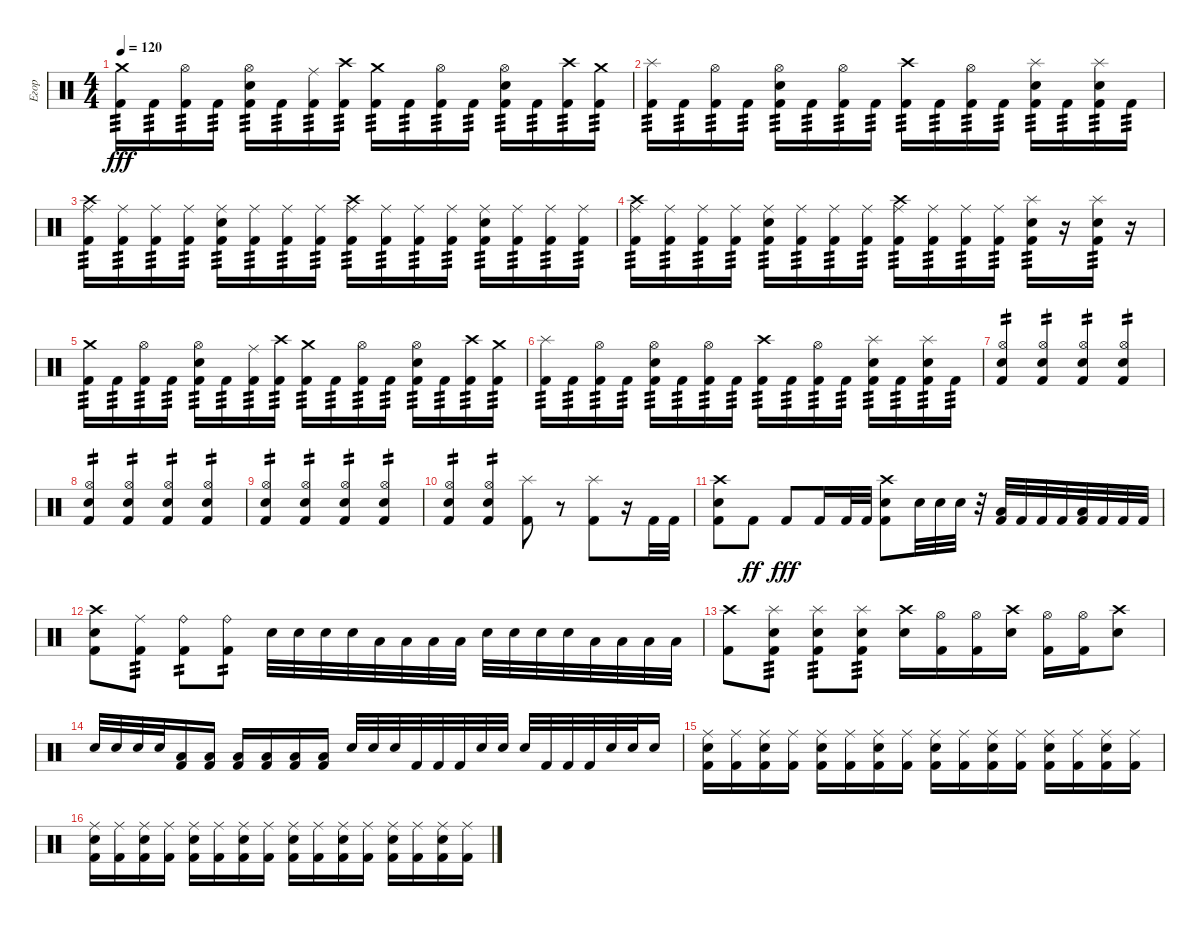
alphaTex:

\track ("Егор" "Егор") {instrument percussion}
\staff {score}
\articulation defaults
\ts (4 4)
\tempo 120
\clef neutral
\ks c
("Crash medium (hit)" "Kick (hit) 2").16{tp 3 dy fff} "Kick (hit) 2".16{tp 3} ("Hi-Hat (open)" "Kick (hit) 2").16{tp 3} "Kick (hit) 2".16{tp 3} ("Hi-Hat (open)" "Snare (hit) 2" "Kick (hit) 2").16{tp 3} "Kick (hit) 2".16{tp 3} ("Ride (middle)" "Kick (hit) 2").16{tp 3} ("Crash high (hit)" "Kick (hit) 2").16{tp 3} ("Crash medium (hit)" "Kick (hit) 2").16{tp 3} "Kick (hit) 2".16{tp 3} ("Hi-Hat (open)" "Kick (hit) 2").16{tp 3} "Kick (hit) 2".16{tp 3} ("Hi-Hat (open)" "Snare (hit) 2" "Kick (hit) 2").16{tp 3} "Kick (hit) 2".16{tp 3} ("Crash high (hit)" "Kick (hit) 2").16{tp 3} ("Crash medium (hit)" "Kick (hit) 2").16{tp 3} |
("Splash (hit)" "Kick (hit) 2").16{tp 3} "Kick (hit) 2".16{tp 3} ("Hi-Hat (open)" "Kick (hit) 2").16{tp 3} "Kick (hit) 2".16{tp 3} ("Hi-Hat (open)" "Snare (hit) 2" "Kick (hit) 2").16{tp 3} "Kick (hit) 2".16{tp 3} ("Hi-Hat (open)" "Kick (hit) 2").16{tp 3} "Kick (hit) 2".16{tp 3} ("Crash high (hit)" "Kick (hit) 2").16{tp 3} "Kick (hit) 2".16{tp 3} ("Hi-Hat (open)" "Kick (hit) 2").16{tp 3} "Kick (hit) 2".16{tp 3} ("Splash (hit)" "Snare (hit) 2" "Kick (hit) 2").16{tp 3} "Kick (hit) 2".16{tp 3} ("Splash (hit)" "Snare (hit) 2" "Kick (hit) 2").16{tp 3} "Kick (hit) 2".16{tp 3} |
("Ride (middle)" "Crash high (hit)" "Kick (hit) 2").16{tp 3} ("Ride (middle)" "Kick (hit) 2").16{tp 3} ("Ride (middle)" "Kick (hit) 2").16{tp 3} ("Ride (middle)" "Kick (hit) 2").16{tp 3} ("Ride (middle)" "Snare (hit) 2" "Kick (hit) 2").16{tp 3} ("Ride (middle)" "Kick (hit) 2").16{tp 3} ("Ride (middle)" "Kick (hit) 2").16{tp 3} ("Ride (middle)" "Kick (hit) 2").16{tp 3} ("Ride (middle)" "Crash high (hit)" "Kick (hit) 2").16{tp 3} ("Ride (middle)" "Kick (hit) 2").16{tp 3} ("Ride (middle)" "Kick (hit) 2").16{tp 3} ("Ride (middle)" "Kick (hit) 2").16{tp 3} ("Ride (middle)" "Snare (hit) 2" "Kick (hit) 2").16{tp 3} ("Ride (middle)" "Kick (hit) 2").16{tp 3} ("Ride (middle)" "Kick (hit) 2").16{tp 3} ("Ride (middle)" "Kick (hit) 2").16{tp 3} |
("Ride (middle)" "Crash high (hit)" "Kick (hit) 2").16{tp 3} ("Ride (middle)" "Kick (hit) 2").16{tp 3} ("Ride (middle)" "Kick (hit) 2").16{tp 3} ("Ride (middle)" "Kick (hit) 2").16{tp 3} ("Ride (middle)" "Snare (hit) 2" "Kick (hit) 2").16{tp 3} ("Ride (middle)" "Kick (hit) 2").16{tp 3} ("Ride (middle)" "Kick (hit) 2").16{tp 3} ("Ride (middle)" "Kick (hit) 2").16{tp 3} ("Ride (middle)" "Crash high (hit)" "Kick (hit) 2").16{tp 3} ("Ride (middle)" "Kick (hit) 2").16{tp 3} ("Ride (middle)" "Kick (hit) 2").16{tp 3} ("Ride (middle)" "Kick (hit) 2").16{tp 3} ("Splash (hit)" "Snare (hit) 2" "Kick (hit) 2").16{tp 3} r.16 ("Splash (hit)" "Snare (hit) 2" "Kick (hit) 2").16{tp 3} r.16 |
("Crash medium (hit)" "Kick (hit) 2").16{tp 3} "Kick (hit) 2".16{tp 3} ("Hi-Hat (open)" "Kick (hit) 2").16{tp 3} "Kick (hit) 2".16{tp 3} ("Hi-Hat (open)" "Snare (hit) 2" "Kick (hit) 2").16{tp 3} "Kick (hit) 2".16{tp 3} ("Ride (middle)" "Kick (hit) 2").16{tp 3} ("Crash high (hit)" "Kick (hit) 2").16{tp 3} ("Crash medium (hit)" "Kick (hit) 2").16{tp 3} "Kick (hit) 2".16{tp 3} ("Hi-Hat (open)" "Kick (hit) 2").16{tp 3} "Kick (hit) 2".16{tp 3} ("Hi-Hat (open)" "Snare (hit) 2" "Kick (hit) 2").16{tp 3} "Kick (hit) 2".16{tp 3} ("Crash high (hit)" "Kick (hit) 2").16{tp 3} ("Crash medium (hit)" "Kick (hit) 2").16{tp 3} |
("Splash (hit)" "Kick (hit) 2").16{tp 3} "Kick (hit) 2".16{tp 3} ("Hi-Hat (open)" "Kick (hit) 2").16{tp 3} "Kick (hit) 2".16{tp 3} ("Hi-Hat (open)" "Snare (hit) 2" "Kick (hit) 2").16{tp 3} "Kick (hit) 2".16{tp 3} ("Hi-Hat (open)" "Kick (hit) 2").16{tp 3} "Kick (hit) 2".16{tp 3} ("Crash high (hit)" "Kick (hit) 2").16{tp 3} "Kick (hit) 2".16{tp 3} ("Hi-Hat (open)" "Kick (hit) 2").16{tp 3} "Kick (hit) 2".16{tp 3} ("Splash (hit)" "Snare (hit) 2" "Kick (hit) 2").16{tp 3} "Kick (hit) 2".16{tp 3} ("Splash (hit)" "Snare (hit) 2" "Kick (hit) 2").16{tp 3} "Kick (hit) 2".16{tp 3} |
("Hi-Hat (open)" "Snare (hit) 2" "Kick (hit) 2").4{tp 2} ("Hi-Hat (open)" "Snare (hit) 2" "Kick (hit) 2").4{tp 2} ("Hi-Hat (open)" "Snare (hit) 2" "Kick (hit) 2").4{tp 2} ("Hi-Hat (open)" "Snare (hit) 2" "Kick (hit) 2").4{tp 2} |
("Hi-Hat (open)" "Snare (hit) 2" "Kick (hit) 2").4{tp 2} ("Hi-Hat (open)" "Snare (hit) 2" "Kick (hit) 2").4{tp 2} ("Hi-Hat (open)" "Snare (hit) 2" "Kick (hit) 2").4{tp 2} ("Hi-Hat (open)" "Snare (hit) 2" "Kick (hit) 2").4{tp 2} |
("Hi-Hat (open)" "Snare (hit) 2" "Kick (hit) 2").4{tp 2} ("Hi-Hat (open)" "Snare (hit) 2" "Kick (hit) 2").4{tp 2} ("Hi-Hat (open)" "Snare (hit) 2" "Kick (hit) 2").4{tp 2} ("Hi-Hat (open)" "Snare (hit) 2" "Kick (hit) 2").4{tp 2} |
("Hi-Hat (open)" "Snare (hit) 2" "Kick (hit) 2").4{tp 2} ("Hi-Hat (open)" "Snare (hit) 2" "Kick (hit) 2").4{tp 2} ("Splash (hit)" "Kick (hit) 2").8 r.8 ("Splash (hit)" "Kick (hit) 2").8 r.16 "Kick (hit) 2".32 "Kick (hit) 2".32 |
("Crash high (hit)" "Snare (hit) 2" "Kick (hit) 2").8 "Kick (hit) 2".8{dy ff} "Kick (hit) 2".8{dy fff} "Kick (hit) 2".16 "Kick (hit) 2".32 "Kick (hit) 2".32 ("Crash high (hit)" "Snare (hit) 2" "Kick (hit) 2").8 "Snare (hit) 2".32 "Snare (hit) 2".32 "Snare (hit) 2".32 r.32 ("Low Tom (hit)" "Kick (hit) 2").32 "Kick (hit) 2".32 "Kick (hit) 2".32 "Kick (hit) 2".32 ("Low Floor Tom (hit)" "Kick (hit) 2").32 "Kick (hit) 2".32 "Kick (hit) 2".32 "Kick (hit) 2".32 |
("Crash high (hit)" "Snare (hit) 2" "Kick (hit) 2").8 ("Ride (middle)" "Kick (hit) 2").8{tp 3} ("Ride (bell)" "Kick (hit) 2").8{tp 2} ("Ride (bell)" "Kick (hit) 2").8{tp 2} "Snare (hit) 2".32 "Snare (hit) 2".32 "Snare (hit) 2".32 "Snare (hit) 2".32 "Low Tom (hit)".32 "Low Tom (hit)".32 "Low Tom (hit)".32 "Low Tom (hit)".32 "Snare (hit) 2".32 "Snare (hit) 2".32 "Snare (hit) 2".32 "Snare (hit) 2".32 "Low Floor Tom (hit)".32 "Low Floor Tom (hit)".32 "Low Floor Tom (hit)".32 "Low Floor Tom (hit)".32 |
("Crash high (hit)" "Kick (hit) 2").8 ("Splash (hit)" "Snare (hit) 2" "Kick (hit) 2").8{tp 3} ("Splash (hit)" "Snare (hit) 2" "Kick (hit) 2").8{tp 3} ("Splash (hit)" "Snare (hit) 2" "Kick (hit) 2").8{tp 3} ("Crash high (hit)" "Snare (hit) 2").16 ("Hi-Hat (open)" "Kick (hit) 2").16 ("Hi-Hat (open)" "Kick (hit) 2").16 ("Crash high (hit)" "Snare (hit) 2").16 ("Hi-Hat (open)" "Kick (hit) 2").16 ("Hi-Hat (open)" "Kick (hit) 2").16 ("Crash high (hit)" "Snare (hit) 2").8 |
"Snare (hit) 2".32 "Snare (hit) 2".32 "Snare (hit) 2".32 "Snare (hit) 2".32 ("Low Tom (hit)" "Kick (hit) 2").16 ("Low Tom (hit)" "Kick (hit) 2").16 ("Low Tom (hit)" "Kick (hit) 2").16 ("Low Tom (hit)" "Kick (hit) 2").16 ("Low Floor Tom (hit)" "Kick (hit) 2").16 ("Low Floor Tom (hit)" "Kick (hit) 2").16 "Snare (hit) 2".32 "Snare (hit) 2".32 "Snare (hit) 2".32 "Kick (hit) 2".32 "Kick (hit) 2".32 "Kick (hit) 2".32 "Snare (hit) 2".32 "Snare (hit) 2".32 "Snare (hit) 2".32 "Kick (hit) 2".32 "Kick (hit) 2".32 "Kick (hit) 2".32 "Snare (hit) 2".32 "Snare (hit) 2".32 "Snare (hit) 2".16 |
("Ride (middle)" "Snare (hit) 2" "Kick (hit) 2").16 ("Ride (middle)" "Kick (hit) 2").16 ("Ride (middle)" "Snare (hit) 2" "Kick (hit) 2").16 ("Ride (middle)" "Kick (hit) 2").16 ("Ride (middle)" "Snare (hit) 2" "Kick (hit) 2").16 ("Ride (middle)" "Kick (hit) 2").16 ("Ride (middle)" "Snare (hit) 2" "Kick (hit) 2").16 ("Ride (middle)" "Kick (hit) 2").16 ("Ride (middle)" "Snare (hit) 2" "Kick (hit) 2").16 ("Ride (middle)" "Kick (hit) 2").16 ("Ride (middle)" "Snare (hit) 2" "Kick (hit) 2").16 ("Ride (middle)" "Kick (hit) 2").16 ("Ride (middle)" "Snare (hit) 2" "Kick (hit) 2").16 ("Ride (middle)" "Kick (hit) 2").16 ("Ride (middle)" "Snare (hit) 2" "Kick (hit) 2").16 ("Ride (middle)" "Kick (hit) 2").16 |
("Ride (middle)" "Snare (hit) 2" "Kick (hit) 2").16 ("Ride (middle)" "Kick (hit) 2").16 ("Ride (middle)" "Snare (hit) 2" "Kick (hit) 2").16 ("Ride (middle)" "Kick (hit) 2").16 ("Ride (middle)" "Snare (hit) 2" "Kick (hit) 2").16 ("Ride (middle)" "Kick (hit) 2").16 ("Ride (middle)" "Snare (hit) 2" "Kick (hit) 2").16 ("Ride (middle)" "Kick (hit) 2").16 ("Ride (middle)" "Snare (hit) 2" "Kick (hit) 2").16 ("Ride (middle)" "Kick (hit) 2").16 ("Ride (middle)" "Snare (hit) 2" "Kick (hit) 2").16 ("Ride (middle)" "Kick (hit) 2").16 ("Ride (middle)" "Snare (hit) 2" "Kick (hit) 2").16 ("Ride (middle)" "Kick (hit) 2").16 ("Ride (middle)" "Snare (hit) 2" "Kick (hit) 2").16 ("Ride (middle)" "Kick (hit) 2").16
